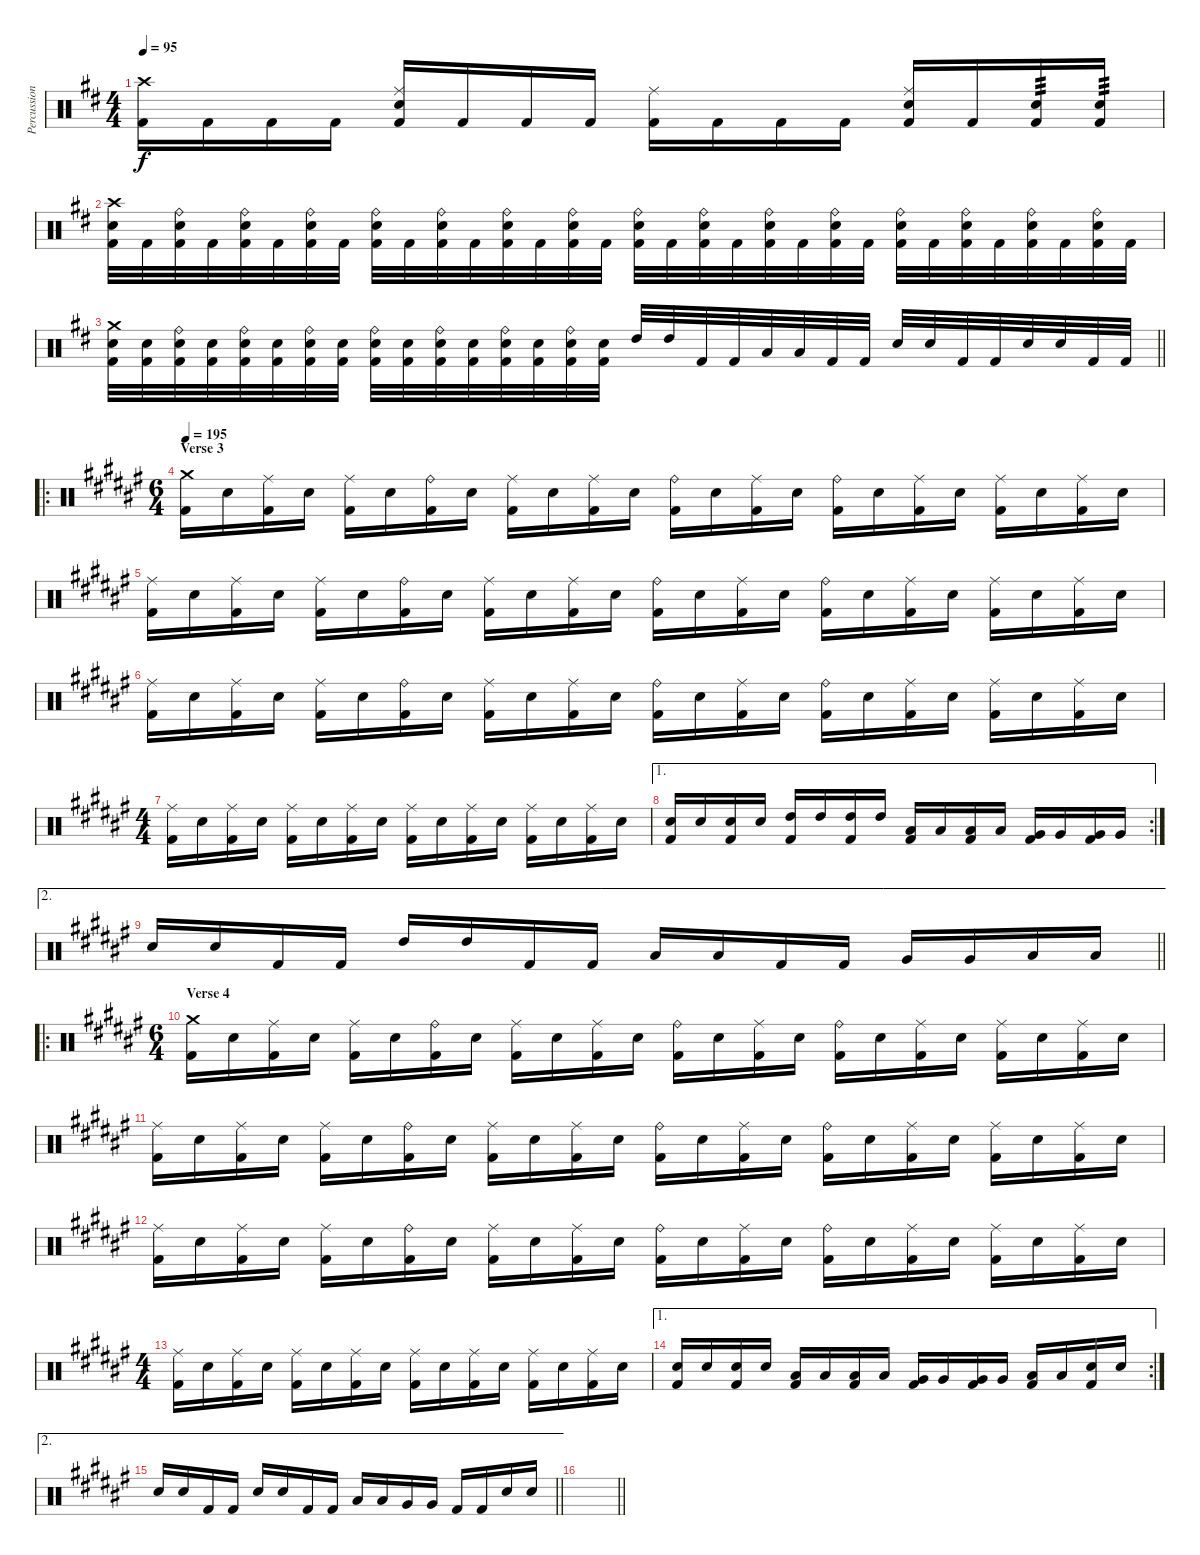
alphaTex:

\track ("Percussion" "Percussion") {instrument percussion}
\staff {score}
\articulation defaults
\ts (4 4)
\tempo 95
\clef neutral
\ks bminor
("Crash high (hit)" "Kick (hit) 2").16{dy f} "Kick (hit) 2".16 "Kick (hit) 2".16 "Kick (hit) 2".16 ("Ride (middle)" "Electric Snare (hit)" "Kick (hit) 2").16 "Kick (hit) 2".16 "Kick (hit) 2".16 "Kick (hit) 2".16 ("Ride (middle)" "Kick (hit) 2").16 "Kick (hit) 2".16 "Kick (hit) 2".16 "Kick (hit) 2".16 ("Ride (middle)" "Electric Snare (hit)" "Kick (hit) 2").16 "Kick (hit) 2".16 ("Electric Snare (hit)" "Kick (hit) 2").16{tp 3} ("Electric Snare (hit)" "Kick (hit) 2").16{tp 3} |
("Crash high (hit)" "Electric Snare (hit)" "Kick (hit) 2").32 "Kick (hit) 2".32 ("Ride (bell)" "Electric Snare (hit)" "Kick (hit) 2").32 "Kick (hit) 2".32 ("Ride (bell)" "Electric Snare (hit)" "Kick (hit) 2").32 "Kick (hit) 2".32 ("Ride (bell)" "Electric Snare (hit)" "Kick (hit) 2").32 "Kick (hit) 2".32 ("Ride (bell)" "Electric Snare (hit)" "Kick (hit) 2").32 "Kick (hit) 2".32 ("Ride (bell)" "Electric Snare (hit)" "Kick (hit) 2").32 "Kick (hit) 2".32 ("Ride (bell)" "Electric Snare (hit)" "Kick (hit) 2").32 "Kick (hit) 2".32 ("Ride (bell)" "Electric Snare (hit)" "Kick (hit) 2").32 "Kick (hit) 2".32 ("Ride (bell)" "Electric Snare (hit)" "Kick (hit) 2").32 "Kick (hit) 2".32 ("Ride (bell)" "Electric Snare (hit)" "Kick (hit) 2").32 "Kick (hit) 2".32 ("Ride (bell)" "Electric Snare (hit)" "Kick (hit) 2").32 "Kick (hit) 2".32 ("Ride (bell)" "Electric Snare (hit)" "Kick (hit) 2").32 "Kick (hit) 2".32 ("Ride (bell)" "Electric Snare (hit)" "Kick (hit) 2").32 "Kick (hit) 2".32 ("Ride (bell)" "Electric Snare (hit)" "Kick (hit) 2").32 "Kick (hit) 2".32 ("Ride (bell)" "Electric Snare (hit)" "Kick (hit) 2").32 "Kick (hit) 2".32 ("Ride (bell)" "Electric Snare (hit)" "Kick (hit) 2").32 "Kick (hit) 2".32 |
\barLineRight lightlight
("Crash medium (hit)" "Electric Snare (hit)" "Kick (hit) 2").32 ("Electric Snare (hit)" "Kick (hit) 2").32 ("Ride (bell)" "Electric Snare (hit)" "Kick (hit) 2").32 ("Electric Snare (hit)" "Kick (hit) 2").32 ("Ride (bell)" "Electric Snare (hit)" "Kick (hit) 2").32 ("Electric Snare (hit)" "Kick (hit) 2").32 ("Ride (bell)" "Electric Snare (hit)" "Kick (hit) 2").32 ("Electric Snare (hit)" "Kick (hit) 2").32 ("Ride (bell)" "Electric Snare (hit)" "Kick (hit) 2").32 ("Electric Snare (hit)" "Kick (hit) 2").32 ("Ride (bell)" "Electric Snare (hit)" "Kick (hit) 2").32 ("Electric Snare (hit)" "Kick (hit) 2").32 ("Ride (bell)" "Electric Snare (hit)" "Kick (hit) 2").32 ("Electric Snare (hit)" "Kick (hit) 2").32 ("Ride (bell)" "Electric Snare (hit)" "Kick (hit) 2").32 ("Electric Snare (hit)" "Kick (hit) 2").32 "High Tom (hit)".32 "High Tom (hit)".32 "Kick (hit) 2".32 "Kick (hit) 2".32 "Low Tom (hit)".32 "Low Tom (hit)".32 "Kick (hit) 2".32 "Kick (hit) 2".32 "Electric Snare (hit)".32 "Electric Snare (hit)".32 "Kick (hit) 2".32 "Kick (hit) 2".32 "Electric Snare (hit)".32 "Electric Snare (hit)".32 "Kick (hit) 2".32 "Kick (hit) 2".32 |
\ro
\ts (6 4)
\section ("" "Verse 3")
\tempo 195
\ks d#minor
("Crash medium (hit)" "Kick (hit) 2").16 "Electric Snare (hit)".16 ("Ride (middle)" "Kick (hit) 2").16 "Electric Snare (hit)".16 ("Ride (middle)" "Kick (hit) 2").16 "Electric Snare (hit)".16 ("Ride (bell)" "Kick (hit) 2").16 "Electric Snare (hit)".16 ("Ride (middle)" "Kick (hit) 2").16 "Electric Snare (hit)".16 ("Ride (middle)" "Kick (hit) 2").16 "Electric Snare (hit)".16 ("Ride (bell)" "Kick (hit) 2").16 "Electric Snare (hit)".16 ("Ride (middle)" "Kick (hit) 2").16 "Electric Snare (hit)".16 ("Ride (bell)" "Kick (hit) 2").16 "Electric Snare (hit)".16 ("Ride (middle)" "Kick (hit) 2").16 "Electric Snare (hit)".16 ("Ride (middle)" "Kick (hit) 2").16 "Electric Snare (hit)".16 ("Ride (middle)" "Kick (hit) 2").16 "Electric Snare (hit)".16 |
("Ride (middle)" "Kick (hit) 2").16 "Electric Snare (hit)".16 ("Ride (middle)" "Kick (hit) 2").16 "Electric Snare (hit)".16 ("Ride (middle)" "Kick (hit) 2").16 "Electric Snare (hit)".16 ("Ride (bell)" "Kick (hit) 2").16 "Electric Snare (hit)".16 ("Ride (middle)" "Kick (hit) 2").16 "Electric Snare (hit)".16 ("Ride (middle)" "Kick (hit) 2").16 "Electric Snare (hit)".16 ("Ride (bell)" "Kick (hit) 2").16 "Electric Snare (hit)".16 ("Ride (middle)" "Kick (hit) 2").16 "Electric Snare (hit)".16 ("Ride (bell)" "Kick (hit) 2").16 "Electric Snare (hit)".16 ("Ride (middle)" "Kick (hit) 2").16 "Electric Snare (hit)".16 ("Ride (middle)" "Kick (hit) 2").16 "Electric Snare (hit)".16 ("Ride (middle)" "Kick (hit) 2").16 "Electric Snare (hit)".16 |
("Ride (middle)" "Kick (hit) 2").16 "Electric Snare (hit)".16 ("Ride (middle)" "Kick (hit) 2").16 "Electric Snare (hit)".16 ("Ride (middle)" "Kick (hit) 2").16 "Electric Snare (hit)".16 ("Ride (bell)" "Kick (hit) 2").16 "Electric Snare (hit)".16 ("Ride (middle)" "Kick (hit) 2").16 "Electric Snare (hit)".16 ("Ride (middle)" "Kick (hit) 2").16 "Electric Snare (hit)".16 ("Ride (bell)" "Kick (hit) 2").16 "Electric Snare (hit)".16 ("Ride (middle)" "Kick (hit) 2").16 "Electric Snare (hit)".16 ("Ride (bell)" "Kick (hit) 2").16 "Electric Snare (hit)".16 ("Ride (middle)" "Kick (hit) 2").16 "Electric Snare (hit)".16 ("Ride (middle)" "Kick (hit) 2").16 "Electric Snare (hit)".16 ("Ride (middle)" "Kick (hit) 2").16 "Electric Snare (hit)".16 |
\ts (4 4)
("Ride (middle)" "Kick (hit) 2").16 "Electric Snare (hit)".16 ("Ride (middle)" "Kick (hit) 2").16 "Electric Snare (hit)".16 ("Ride (middle)" "Kick (hit) 2").16 "Electric Snare (hit)".16 ("Ride (middle)" "Kick (hit) 2").16 "Electric Snare (hit)".16 ("Ride (middle)" "Kick (hit) 2").16 "Electric Snare (hit)".16 ("Ride (middle)" "Kick (hit) 2").16 "Electric Snare (hit)".16 ("Ride (middle)" "Kick (hit) 2").16 "Electric Snare (hit)".16 ("Ride (middle)" "Kick (hit) 2").16 "Electric Snare (hit)".16 |
\ae 1
\rc 2
("Electric Snare (hit)" "Kick (hit) 2").16 "Electric Snare (hit)".16 ("Electric Snare (hit)" "Kick (hit) 2").16 "Electric Snare (hit)".16 ("High Tom (hit)" "Kick (hit) 2").16 "High Tom (hit)".16 ("High Tom (hit)" "Kick (hit) 2").16 "High Tom (hit)".16 ("Low Tom (hit)" "Kick (hit) 2").16 "Low Tom (hit)".16 ("Low Tom (hit)" "Kick (hit) 2").16 "Low Tom (hit)".16 ("Very Low Tom (hit)" "Kick (hit) 2").16 "Very Low Tom (hit)".16 ("Very Low Tom (hit)" "Kick (hit) 2").16 "Very Low Tom (hit)".16 |
\ae 2
\barLineRight lightlight "Electric Snare (hit)".16 "Electric Snare (hit)".16 "Kick (hit) 2".16 "Kick (hit) 2".16 "High Tom (hit)".16 "High Tom (hit)".16 "Kick (hit) 2".16 "Kick (hit) 2".16 "Low Tom (hit)".16 "Low Tom (hit)".16 "Kick (hit) 2".16 "Kick (hit) 2".16 "Very Low Tom (hit)".16 "Very Low Tom (hit)".16 "Low Floor Tom (hit)".16 "Low Floor Tom (hit)".16
|
\ro
\ts (6 4)
\section ("" "Verse 4")
("Crash medium (hit)" "Kick (hit) 2").16 "Electric Snare (hit)".16 ("Ride (middle)" "Kick (hit) 2").16 "Electric Snare (hit)".16 ("Ride (middle)" "Kick (hit) 2").16 "Electric Snare (hit)".16 ("Ride (bell)" "Kick (hit) 2").16 "Electric Snare (hit)".16 ("Ride (middle)" "Kick (hit) 2").16 "Electric Snare (hit)".16 ("Ride (middle)" "Kick (hit) 2").16 "Electric Snare (hit)".16 ("Ride (bell)" "Kick (hit) 2").16 "Electric Snare (hit)".16 ("Ride (middle)" "Kick (hit) 2").16 "Electric Snare (hit)".16 ("Ride (bell)" "Kick (hit) 2").16 "Electric Snare (hit)".16 ("Ride (middle)" "Kick (hit) 2").16 "Electric Snare (hit)".16 ("Ride (middle)" "Kick (hit) 2").16 "Electric Snare (hit)".16 ("Ride (middle)" "Kick (hit) 2").16 "Electric Snare (hit)".16 |
("Ride (middle)" "Kick (hit) 2").16 "Electric Snare (hit)".16 ("Ride (middle)" "Kick (hit) 2").16 "Electric Snare (hit)".16 ("Ride (middle)" "Kick (hit) 2").16 "Electric Snare (hit)".16 ("Ride (bell)" "Kick (hit) 2").16 "Electric Snare (hit)".16 ("Ride (middle)" "Kick (hit) 2").16 "Electric Snare (hit)".16 ("Ride (middle)" "Kick (hit) 2").16 "Electric Snare (hit)".16 ("Ride (bell)" "Kick (hit) 2").16 "Electric Snare (hit)".16 ("Ride (middle)" "Kick (hit) 2").16 "Electric Snare (hit)".16 ("Ride (bell)" "Kick (hit) 2").16 "Electric Snare (hit)".16 ("Ride (middle)" "Kick (hit) 2").16 "Electric Snare (hit)".16 ("Ride (middle)" "Kick (hit) 2").16 "Electric Snare (hit)".16 ("Ride (middle)" "Kick (hit) 2").16 "Electric Snare (hit)".16 |
("Ride (middle)" "Kick (hit) 2").16 "Electric Snare (hit)".16 ("Ride (middle)" "Kick (hit) 2").16 "Electric Snare (hit)".16 ("Ride (middle)" "Kick (hit) 2").16 "Electric Snare (hit)".16 ("Ride (bell)" "Kick (hit) 2").16 "Electric Snare (hit)".16 ("Ride (middle)" "Kick (hit) 2").16 "Electric Snare (hit)".16 ("Ride (middle)" "Kick (hit) 2").16 "Electric Snare (hit)".16 ("Ride (bell)" "Kick (hit) 2").16 "Electric Snare (hit)".16 ("Ride (middle)" "Kick (hit) 2").16 "Electric Snare (hit)".16 ("Ride (bell)" "Kick (hit) 2").16 "Electric Snare (hit)".16 ("Ride (middle)" "Kick (hit) 2").16 "Electric Snare (hit)".16 ("Ride (middle)" "Kick (hit) 2").16 "Electric Snare (hit)".16 ("Ride (middle)" "Kick (hit) 2").16 "Electric Snare (hit)".16 |
\ts (4 4)
("Ride (middle)" "Kick (hit) 2").16 "Electric Snare (hit)".16 ("Ride (middle)" "Kick (hit) 2").16 "Electric Snare (hit)".16 ("Ride (middle)" "Kick (hit) 2").16 "Electric Snare (hit)".16 ("Ride (middle)" "Kick (hit) 2").16 "Electric Snare (hit)".16 ("Ride (middle)" "Kick (hit) 2").16 "Electric Snare (hit)".16 ("Ride (middle)" "Kick (hit) 2").16 "Electric Snare (hit)".16 ("Ride (middle)" "Kick (hit) 2").16 "Electric Snare (hit)".16 ("Ride (middle)" "Kick (hit) 2").16 "Electric Snare (hit)".16 |
\ae 1
\rc 2
("Electric Snare (hit)" "Kick (hit) 2").16 "Electric Snare (hit)".16 ("Electric Snare (hit)" "Kick (hit) 2").16 "Electric Snare (hit)".16 ("Low Tom (hit)" "Kick (hit) 2").16 "Low Tom (hit)".16 ("Low Tom (hit)" "Kick (hit) 2").16 "Low Tom (hit)".16 ("Very Low Tom (hit)" "Kick (hit) 2").16 "Very Low Tom (hit)".16 ("Very Low Tom (hit)" "Kick (hit) 2").16 "Very Low Tom (hit)".16 ("Low Floor Tom (hit)" "Kick (hit) 2").16 "Low Floor Tom (hit)".16 ("Electric Snare (hit)" "Kick (hit) 2").16 "Electric Snare (hit)".16 |
\ae 2
\barLineRight lightlight "Electric Snare (hit)".16 "Electric Snare (hit)".16 "Kick (hit) 2".16 "Kick (hit) 2".16 "Electric Snare (hit)".16 "Electric Snare (hit)".16 "Kick (hit) 2".16 "Kick (hit) 2".16 "Low Tom (hit)".16 "Low Tom (hit)".16 "Very Low Tom (hit)".16 "Very Low Tom (hit)".16 "Kick (hit) 2".16 "Kick (hit) 2".16 "Electric Snare (hit)".16 "Electric Snare (hit)".16
|
\barLineRight lightlight
